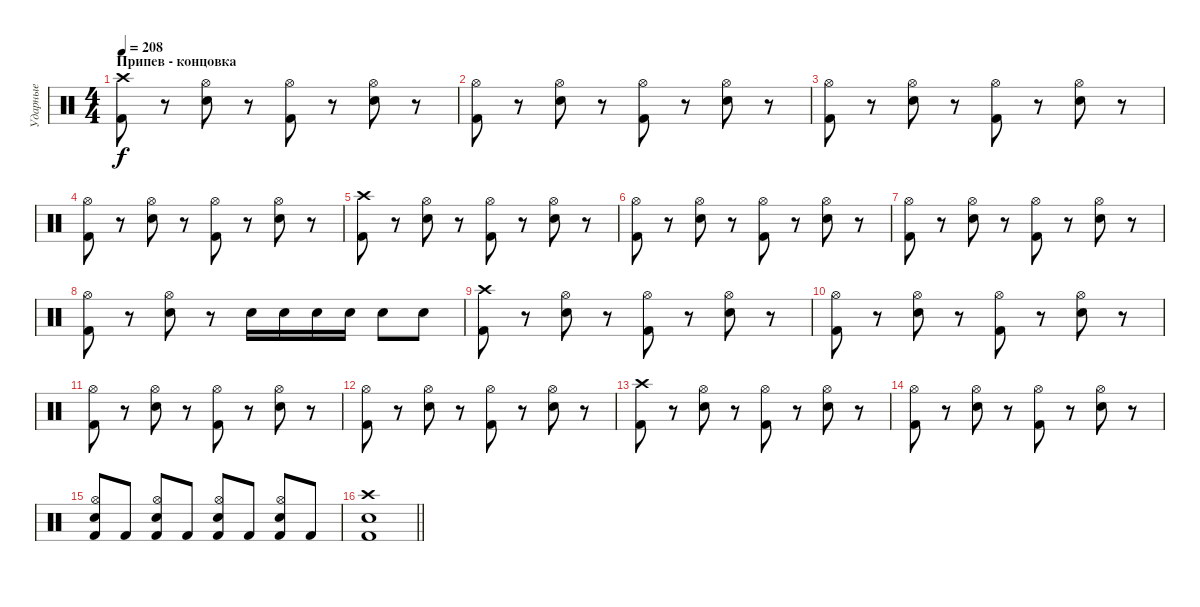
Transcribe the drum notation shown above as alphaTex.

\track ("Ударные" "Ударные") {instrument percussion}
\staff {score}
\articulation defaults
\ts (4 4)
\section ("" "Припев - концовка")
\tempo 208
\clef neutral
\ks c
("Crash high (hit)" "Kick (hit) 2").8{dy f} r.8 ("Hi-Hat (open)" "Electric Snare (hit)").8 r.8 ("Hi-Hat (open)" "Kick (hit) 2").8 r.8 ("Hi-Hat (open)" "Electric Snare (hit)").8 r.8 |
("Hi-Hat (open)" "Kick (hit) 2").8 r.8 ("Hi-Hat (open)" "Electric Snare (hit)").8 r.8 ("Hi-Hat (open)" "Kick (hit) 2").8 r.8 ("Hi-Hat (open)" "Electric Snare (hit)").8 r.8 |
("Hi-Hat (open)" "Kick (hit) 2").8 r.8 ("Hi-Hat (open)" "Electric Snare (hit)").8 r.8 ("Hi-Hat (open)" "Kick (hit) 2").8 r.8 ("Hi-Hat (open)" "Electric Snare (hit)").8 r.8 |
("Hi-Hat (open)" "Kick (hit) 2").8 r.8 ("Hi-Hat (open)" "Electric Snare (hit)").8 r.8 ("Hi-Hat (open)" "Kick (hit) 2").8 r.8 ("Hi-Hat (open)" "Electric Snare (hit)").8 r.8 |
("Crash high (hit)" "Kick (hit) 2").8 r.8 ("Hi-Hat (open)" "Electric Snare (hit)").8 r.8 ("Hi-Hat (open)" "Kick (hit) 2").8 r.8 ("Hi-Hat (open)" "Electric Snare (hit)").8 r.8 |
("Hi-Hat (open)" "Kick (hit) 2").8 r.8 ("Hi-Hat (open)" "Electric Snare (hit)").8 r.8 ("Hi-Hat (open)" "Kick (hit) 2").8 r.8 ("Hi-Hat (open)" "Electric Snare (hit)").8 r.8 |
("Hi-Hat (open)" "Kick (hit) 2").8 r.8 ("Hi-Hat (open)" "Electric Snare (hit)").8 r.8 ("Hi-Hat (open)" "Kick (hit) 2").8 r.8 ("Hi-Hat (open)" "Electric Snare (hit)").8 r.8 |
("Hi-Hat (open)" "Kick (hit) 2").8 r.8 ("Hi-Hat (open)" "Electric Snare (hit)").8 r.8 "Electric Snare (hit)".16 "Electric Snare (hit)".16 "Electric Snare (hit)".16 "Electric Snare (hit)".16 "Electric Snare (hit)".8 "Electric Snare (hit)".8 |
("Crash high (hit)" "Kick (hit) 2").8 r.8 ("Hi-Hat (open)" "Electric Snare (hit)").8 r.8 ("Hi-Hat (open)" "Kick (hit) 2").8 r.8 ("Hi-Hat (open)" "Electric Snare (hit)").8 r.8 |
("Hi-Hat (open)" "Kick (hit) 2").8 r.8 ("Hi-Hat (open)" "Electric Snare (hit)").8 r.8 ("Hi-Hat (open)" "Kick (hit) 2").8 r.8 ("Hi-Hat (open)" "Electric Snare (hit)").8 r.8 |
("Hi-Hat (open)" "Kick (hit) 2").8 r.8 ("Hi-Hat (open)" "Electric Snare (hit)").8 r.8 ("Hi-Hat (open)" "Kick (hit) 2").8 r.8 ("Hi-Hat (open)" "Electric Snare (hit)").8 r.8 |
("Hi-Hat (open)" "Kick (hit) 2").8 r.8 ("Hi-Hat (open)" "Electric Snare (hit)").8 r.8 ("Hi-Hat (open)" "Kick (hit) 2").8 r.8 ("Hi-Hat (open)" "Electric Snare (hit)").8 r.8 |
("Crash high (hit)" "Kick (hit) 2").8 r.8 ("Hi-Hat (open)" "Electric Snare (hit)").8 r.8 ("Hi-Hat (open)" "Kick (hit) 2").8 r.8 ("Hi-Hat (open)" "Electric Snare (hit)").8 r.8 |
("Hi-Hat (open)" "Kick (hit) 2").8 r.8 ("Hi-Hat (open)" "Electric Snare (hit)").8 r.8 ("Hi-Hat (open)" "Kick (hit) 2").8 r.8 ("Hi-Hat (open)" "Electric Snare (hit)").8 r.8 |
("Hi-Hat (open)" "Kick (hit) 2" "Electric Snare (hit)").8 "Kick (hit) 2".8 ("Hi-Hat (open)" "Kick (hit) 2" "Electric Snare (hit)").8 "Kick (hit) 2".8 ("Hi-Hat (open)" "Kick (hit) 2" "Electric Snare (hit)").8 "Kick (hit) 2".8 ("Hi-Hat (open)" "Kick (hit) 2" "Electric Snare (hit)").8 "Kick (hit) 2".8 |
\barLineRight lightlight
("Crash high (hit)" "Kick (hit) 2" "Electric Snare (hit)").1
